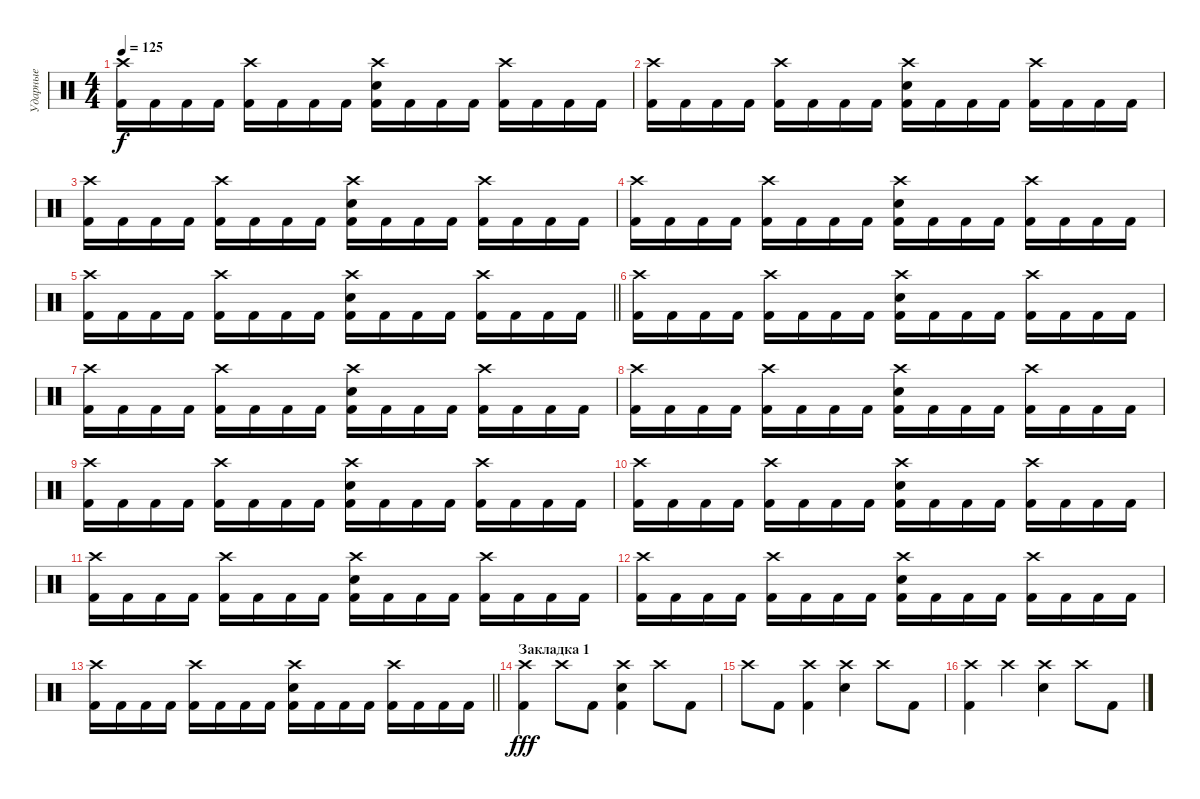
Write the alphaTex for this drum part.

\track ("Ударные" "Ударные") {instrument percussion}
\staff {score}
\articulation defaults
\ts (4 4)
\tempo 125
\clef neutral
\ks c
("Crash high (hit)" "Kick (hit) 2").16{dy f} "Kick (hit) 2".16 "Kick (hit) 2".16 "Kick (hit) 2".16 ("Crash high (hit)" "Kick (hit) 2").16 "Kick (hit) 2".16 "Kick (hit) 2".16 "Kick (hit) 2".16 ("Crash high (hit)" "Snare (hit) 2" "Kick (hit) 2").16 "Kick (hit) 2".16 "Kick (hit) 2".16 "Kick (hit) 2".16 ("Crash high (hit)" "Kick (hit) 2").16 "Kick (hit) 2".16 "Kick (hit) 2".16 "Kick (hit) 2".16 |
("Crash high (hit)" "Kick (hit) 2").16 "Kick (hit) 2".16 "Kick (hit) 2".16 "Kick (hit) 2".16 ("Crash high (hit)" "Kick (hit) 2").16 "Kick (hit) 2".16 "Kick (hit) 2".16 "Kick (hit) 2".16 ("Crash high (hit)" "Snare (hit) 2" "Kick (hit) 2").16 "Kick (hit) 2".16 "Kick (hit) 2".16 "Kick (hit) 2".16 ("Crash high (hit)" "Kick (hit) 2").16 "Kick (hit) 2".16 "Kick (hit) 2".16 "Kick (hit) 2".16 |
("Crash high (hit)" "Kick (hit) 2").16 "Kick (hit) 2".16 "Kick (hit) 2".16 "Kick (hit) 2".16 ("Crash high (hit)" "Kick (hit) 2").16 "Kick (hit) 2".16 "Kick (hit) 2".16 "Kick (hit) 2".16 ("Crash high (hit)" "Snare (hit) 2" "Kick (hit) 2").16 "Kick (hit) 2".16 "Kick (hit) 2".16 "Kick (hit) 2".16 ("Crash high (hit)" "Kick (hit) 2").16 "Kick (hit) 2".16 "Kick (hit) 2".16 "Kick (hit) 2".16 |
("Crash high (hit)" "Kick (hit) 2").16 "Kick (hit) 2".16 "Kick (hit) 2".16 "Kick (hit) 2".16 ("Crash high (hit)" "Kick (hit) 2").16 "Kick (hit) 2".16 "Kick (hit) 2".16 "Kick (hit) 2".16 ("Crash high (hit)" "Snare (hit) 2" "Kick (hit) 2").16 "Kick (hit) 2".16 "Kick (hit) 2".16 "Kick (hit) 2".16 ("Crash high (hit)" "Kick (hit) 2").16 "Kick (hit) 2".16 "Kick (hit) 2".16 "Kick (hit) 2".16 |
\barLineRight lightlight
("Crash high (hit)" "Kick (hit) 2").16 "Kick (hit) 2".16 "Kick (hit) 2".16 "Kick (hit) 2".16 ("Crash high (hit)" "Kick (hit) 2").16 "Kick (hit) 2".16 "Kick (hit) 2".16 "Kick (hit) 2".16 ("Crash high (hit)" "Snare (hit) 2" "Kick (hit) 2").16 "Kick (hit) 2".16 "Kick (hit) 2".16 "Kick (hit) 2".16 ("Crash high (hit)" "Kick (hit) 2").16 "Kick (hit) 2".16 "Kick (hit) 2".16 "Kick (hit) 2".16 |
("Crash high (hit)" "Kick (hit) 2").16 "Kick (hit) 2".16 "Kick (hit) 2".16 "Kick (hit) 2".16 ("Crash high (hit)" "Kick (hit) 2").16 "Kick (hit) 2".16 "Kick (hit) 2".16 "Kick (hit) 2".16 ("Crash high (hit)" "Snare (hit) 2" "Kick (hit) 2").16 "Kick (hit) 2".16 "Kick (hit) 2".16 "Kick (hit) 2".16 ("Crash high (hit)" "Kick (hit) 2").16 "Kick (hit) 2".16 "Kick (hit) 2".16 "Kick (hit) 2".16 |
("Crash high (hit)" "Kick (hit) 2").16 "Kick (hit) 2".16 "Kick (hit) 2".16 "Kick (hit) 2".16 ("Crash high (hit)" "Kick (hit) 2").16 "Kick (hit) 2".16 "Kick (hit) 2".16 "Kick (hit) 2".16 ("Crash high (hit)" "Snare (hit) 2" "Kick (hit) 2").16 "Kick (hit) 2".16 "Kick (hit) 2".16 "Kick (hit) 2".16 ("Crash high (hit)" "Kick (hit) 2").16 "Kick (hit) 2".16 "Kick (hit) 2".16 "Kick (hit) 2".16 |
("Crash high (hit)" "Kick (hit) 2").16 "Kick (hit) 2".16 "Kick (hit) 2".16 "Kick (hit) 2".16 ("Crash high (hit)" "Kick (hit) 2").16 "Kick (hit) 2".16 "Kick (hit) 2".16 "Kick (hit) 2".16 ("Crash high (hit)" "Snare (hit) 2" "Kick (hit) 2").16 "Kick (hit) 2".16 "Kick (hit) 2".16 "Kick (hit) 2".16 ("Crash high (hit)" "Kick (hit) 2").16 "Kick (hit) 2".16 "Kick (hit) 2".16 "Kick (hit) 2".16 |
("Crash high (hit)" "Kick (hit) 2").16 "Kick (hit) 2".16 "Kick (hit) 2".16 "Kick (hit) 2".16 ("Crash high (hit)" "Kick (hit) 2").16 "Kick (hit) 2".16 "Kick (hit) 2".16 "Kick (hit) 2".16 ("Crash high (hit)" "Snare (hit) 2" "Kick (hit) 2").16 "Kick (hit) 2".16 "Kick (hit) 2".16 "Kick (hit) 2".16 ("Crash high (hit)" "Kick (hit) 2").16 "Kick (hit) 2".16 "Kick (hit) 2".16 "Kick (hit) 2".16 |
("Crash high (hit)" "Kick (hit) 2").16 "Kick (hit) 2".16 "Kick (hit) 2".16 "Kick (hit) 2".16 ("Crash high (hit)" "Kick (hit) 2").16 "Kick (hit) 2".16 "Kick (hit) 2".16 "Kick (hit) 2".16 ("Crash high (hit)" "Snare (hit) 2" "Kick (hit) 2").16 "Kick (hit) 2".16 "Kick (hit) 2".16 "Kick (hit) 2".16 ("Crash high (hit)" "Kick (hit) 2").16 "Kick (hit) 2".16 "Kick (hit) 2".16 "Kick (hit) 2".16 |
("Crash high (hit)" "Kick (hit) 2").16 "Kick (hit) 2".16 "Kick (hit) 2".16 "Kick (hit) 2".16 ("Crash high (hit)" "Kick (hit) 2").16 "Kick (hit) 2".16 "Kick (hit) 2".16 "Kick (hit) 2".16 ("Crash high (hit)" "Snare (hit) 2" "Kick (hit) 2").16 "Kick (hit) 2".16 "Kick (hit) 2".16 "Kick (hit) 2".16 ("Crash high (hit)" "Kick (hit) 2").16 "Kick (hit) 2".16 "Kick (hit) 2".16 "Kick (hit) 2".16 |
("Crash high (hit)" "Kick (hit) 2").16 "Kick (hit) 2".16 "Kick (hit) 2".16 "Kick (hit) 2".16 ("Crash high (hit)" "Kick (hit) 2").16 "Kick (hit) 2".16 "Kick (hit) 2".16 "Kick (hit) 2".16 ("Crash high (hit)" "Snare (hit) 2" "Kick (hit) 2").16 "Kick (hit) 2".16 "Kick (hit) 2".16 "Kick (hit) 2".16 ("Crash high (hit)" "Kick (hit) 2").16 "Kick (hit) 2".16 "Kick (hit) 2".16 "Kick (hit) 2".16 |
\barLineRight lightlight
("Crash high (hit)" "Kick (hit) 2").16 "Kick (hit) 2".16 "Kick (hit) 2".16 "Kick (hit) 2".16 ("Crash high (hit)" "Kick (hit) 2").16 "Kick (hit) 2".16 "Kick (hit) 2".16 "Kick (hit) 2".16 ("Crash high (hit)" "Snare (hit) 2" "Kick (hit) 2").16 "Kick (hit) 2".16 "Kick (hit) 2".16 "Kick (hit) 2".16 ("Crash high (hit)" "Kick (hit) 2").16 "Kick (hit) 2".16 "Kick (hit) 2".16 "Kick (hit) 2".16 |
\section ("" "Закладка 1")
("Crash high (hit)" "Kick (hit) 2").4{dy fff} "Crash high (hit)".8 "Kick (hit) 2".8 ("Crash high (hit)" "Snare (hit) 2" "Kick (hit) 2").4 "Crash high (hit)".8 "Kick (hit) 2".8 |
"Crash high (hit)".8 "Kick (hit) 2".8 ("Crash high (hit)" "Kick (hit) 2").4 ("Crash high (hit)" "Snare (hit) 2").4 "Crash high (hit)".8 "Kick (hit) 2".8 |
("Crash high (hit)" "Kick (hit) 2").4 "Crash high (hit)".4 ("Crash high (hit)" "Snare (hit) 2").4 "Crash high (hit)".8 "Kick (hit) 2".8
